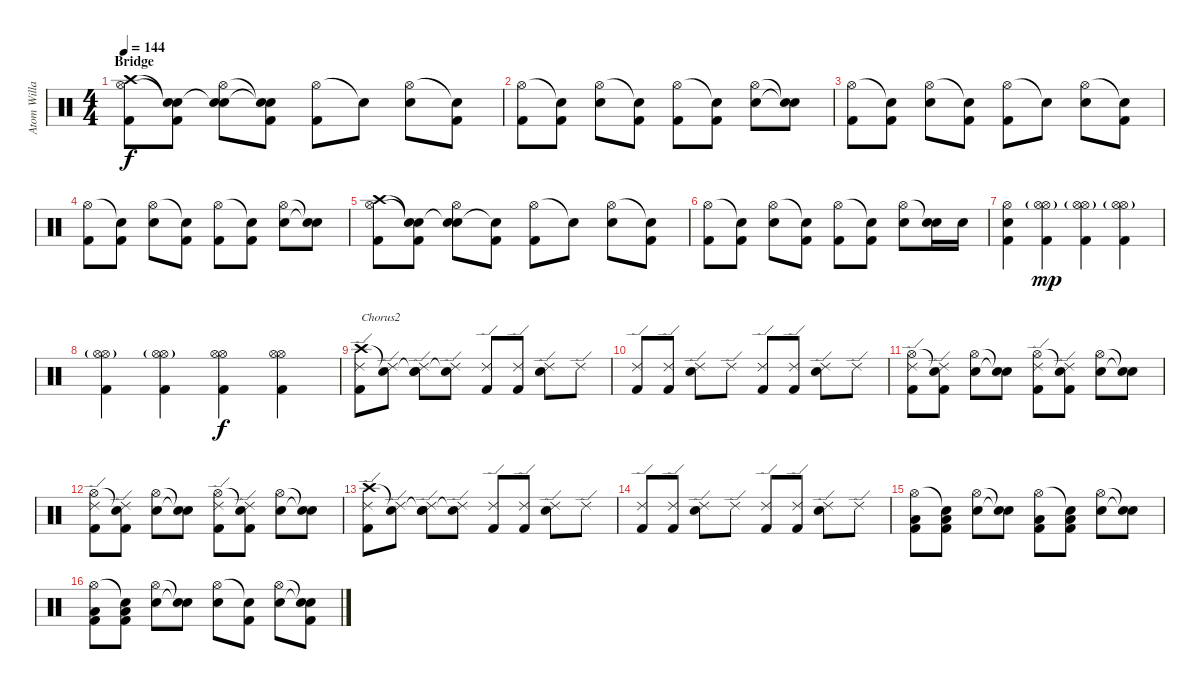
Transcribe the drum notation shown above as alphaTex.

\track ("Atom Willard (Drums)" "Atom Willa") {instrument percussion}
\staff {score}
\articulation defaults
\ts (4 4)
\section ("" "Bridge")
\tempo 144
\clef neutral
\ks c
("Crash high (hit)" "Hi-Hat (open)" "Kick (hit) 2").8{dy f} ("Snare (hit)"{t} "Snare (hit)"{t} "Kick (hit) 2").8 ("Snare (hit)"{t} "Hi-Hat (open)" "Electric Snare (hit)").8 ("Snare (hit)"{t} "Snare (hit)"{t} "Kick (hit) 2").8 ("Hi-Hat (open)" "Kick (hit) 2").8 "Snare (hit)"{t}.8 ("Hi-Hat (open)" "Electric Snare (hit)").8 ("Snare (hit)"{t} "Kick (hit) 2").8 |
("Hi-Hat (open)" "Kick (hit) 2").8 ("Snare (hit)"{t} "Kick (hit) 2").8 ("Hi-Hat (open)" "Electric Snare (hit)").8 ("Snare (hit)"{t} "Kick (hit) 2").8 ("Hi-Hat (open)" "Kick (hit) 2").8 ("Snare (hit)"{t} "Kick (hit) 2").8 ("Hi-Hat (open)" "Electric Snare (hit)").8 ("Snare (hit)"{t} "Snare (hit)"{t}).8 |
("Hi-Hat (open)" "Kick (hit) 2").8 ("Snare (hit)"{t} "Kick (hit) 2").8 ("Hi-Hat (open)" "Electric Snare (hit)").8 ("Snare (hit)"{t} "Kick (hit) 2").8 ("Hi-Hat (open)" "Kick (hit) 2").8 "Snare (hit)"{t}.8 ("Hi-Hat (open)" "Electric Snare (hit)").8 ("Snare (hit)"{t} "Kick (hit) 2").8 |
("Hi-Hat (open)" "Kick (hit) 2").8 ("Snare (hit)"{t} "Kick (hit) 2").8 ("Hi-Hat (open)" "Electric Snare (hit)").8 ("Snare (hit)"{t} "Kick (hit) 2").8 ("Hi-Hat (open)" "Kick (hit) 2").8 ("Snare (hit)"{t} "Kick (hit) 2").8 ("Hi-Hat (open)" "Electric Snare (hit)").8 ("Snare (hit)"{t} "Snare (hit)"{t}).8 |
("Crash high (hit)" "Hi-Hat (open)" "Kick (hit) 2").8 ("Snare (hit)"{t} "Snare (hit)"{t} "Kick (hit) 2").8 ("Snare (hit)"{t} "Hi-Hat (open)" "Electric Snare (hit)").8 ("Snare (hit)"{t} "Kick (hit) 2").8 ("Hi-Hat (open)" "Kick (hit) 2").8 "Snare (hit)"{t}.8 ("Hi-Hat (open)" "Electric Snare (hit)").8 ("Snare (hit)"{t} "Kick (hit) 2").8 |
("Hi-Hat (open)" "Kick (hit) 2").8 ("Snare (hit)"{t} "Kick (hit) 2").8 ("Hi-Hat (open)" "Electric Snare (hit)").8 ("Snare (hit)"{t} "Kick (hit) 2").8 ("Hi-Hat (open)" "Kick (hit) 2").8 ("Snare (hit)"{t} "Kick (hit) 2").8 ("Hi-Hat (open)" "Electric Snare (hit)").8 ("Snare (hit)"{t} "Electric Snare (hit)").16 "Electric Snare (hit)".16 |
("Hi-Hat (open)" "Electric Snare (hit)" "Kick (hit) 2").4 ("Hi-Hat (open)" "Hi-Hat (open)"{g} "Kick (hit) 2").4{dy mp} ("Hi-Hat (open)" "Hi-Hat (open)"{g} "Kick (hit) 2").4 ("Hi-Hat (open)" "Hi-Hat (open)"{g} "Kick (hit) 2").4 |
("Hi-Hat (open)" "Hi-Hat (open)"{g} "Kick (hit) 2").4 ("Hi-Hat (open)" "Hi-Hat (open)"{g} "Kick (hit) 2").4 ("Hi-Hat (open)" "Hi-Hat (open)" "Kick (hit) 2").4{dy f} ("Hi-Hat (open)" "Hi-Hat (open)" "Kick (hit) 2").4 |
("Crash high (hit)" "Ride (edge) 2" "Kick (hit) 2").8{txt "Chorus2"} ("Snare (hit)"{t} "Ride (edge) 2").8 ("Snare (hit)"{t} "Ride (edge) 2" "Electric Snare (hit)").8 ("Snare (hit)"{t} "Ride (edge) 2").8 ("Ride (edge) 2" "Kick (hit) 2").8 ("Ride (edge) 2" "Kick (hit) 2").8 ("Ride (edge) 2" "Electric Snare (hit)").8 "Ride (edge) 2".8 |
("Ride (edge) 2" "Kick (hit) 2").8 ("Ride (edge) 2" "Kick (hit) 2").8 ("Ride (edge) 2" "Electric Snare (hit)").8 "Ride (edge) 2".8 ("Ride (edge) 2" "Kick (hit) 2").8 ("Ride (edge) 2" "Kick (hit) 2").8 ("Ride (edge) 2" "Electric Snare (hit)").8 "Ride (edge) 2".8 |
("Hi-Hat (open)" "Ride (edge) 2" "Kick (hit) 2").8 ("Snare (hit)"{t} "Ride (edge) 2" "Kick (hit) 2").8 ("Hi-Hat (open)" "Electric Snare (hit)").8 ("Snare (hit)"{t} "Snare (hit)"{t}).8 ("Hi-Hat (open)" "Ride (edge) 2" "Kick (hit) 2").8 ("Snare (hit)"{t} "Ride (edge) 2" "Kick (hit) 2").8 ("Hi-Hat (open)" "Electric Snare (hit)").8 ("Snare (hit)"{t} "Snare (hit)"{t}).8 |
("Hi-Hat (open)" "Ride (edge) 2" "Kick (hit) 2").8 ("Snare (hit)"{t} "Ride (edge) 2" "Kick (hit) 2").8 ("Hi-Hat (open)" "Electric Snare (hit)").8 ("Snare (hit)"{t} "Snare (hit)"{t}).8 ("Hi-Hat (open)" "Ride (edge) 2" "Kick (hit) 2").8 ("Snare (hit)"{t} "Ride (edge) 2" "Kick (hit) 2").8 ("Hi-Hat (open)" "Electric Snare (hit)").8 ("Snare (hit)"{t} "Snare (hit)"{t}).8 |
("Crash high (hit)" "Ride (edge) 2" "Kick (hit) 2").8 ("Snare (hit)"{t} "Ride (edge) 2").8 ("Snare (hit)"{t} "Ride (edge) 2" "Electric Snare (hit)").8 ("Snare (hit)"{t} "Ride (edge) 2").8 ("Ride (edge) 2" "Kick (hit) 2").8 ("Ride (edge) 2" "Kick (hit) 2").8 ("Ride (edge) 2" "Electric Snare (hit)").8 "Ride (edge) 2".8 |
("Ride (edge) 2" "Kick (hit) 2").8 ("Ride (edge) 2" "Kick (hit) 2").8 ("Ride (edge) 2" "Electric Snare (hit)").8 "Ride (edge) 2".8 ("Ride (edge) 2" "Kick (hit) 2").8 ("Ride (edge) 2" "Kick (hit) 2").8 ("Ride (edge) 2" "Electric Snare (hit)").8 "Ride (edge) 2".8 |
("Hi-Hat (open)" "Low Tom (hit)" "Kick (hit) 2").8 ("Snare (hit)"{t} "Low Tom (hit)" "Kick (hit) 2").8 ("Hi-Hat (open)" "Electric Snare (hit)").8 ("Snare (hit)"{t} "Snare (hit)"{t}).8 ("Hi-Hat (open)" "Low Tom (hit)" "Kick (hit) 2").8 ("Snare (hit)"{t} "Low Tom (hit)" "Kick (hit) 2").8 ("Hi-Hat (open)" "Electric Snare (hit)").8 ("Snare (hit)"{t} "Snare (hit)"{t}).8 |
("Hi-Hat (open)" "Low Tom (hit)" "Kick (hit) 2").8 ("Snare (hit)"{t} "Low Tom (hit)" "Kick (hit) 2").8 ("Hi-Hat (open)" "Electric Snare (hit)").8 ("Snare (hit)"{t} "Snare (hit)"{t}).8 ("Hi-Hat (open)" "Electric Snare (hit)").8 ("Snare (hit)"{t} "Kick (hit) 2").8 ("Hi-Hat (open)" "Electric Snare (hit)").8 ("Snare (hit)"{t} "Snare (hit)"{t} "Kick (hit) 2").8
